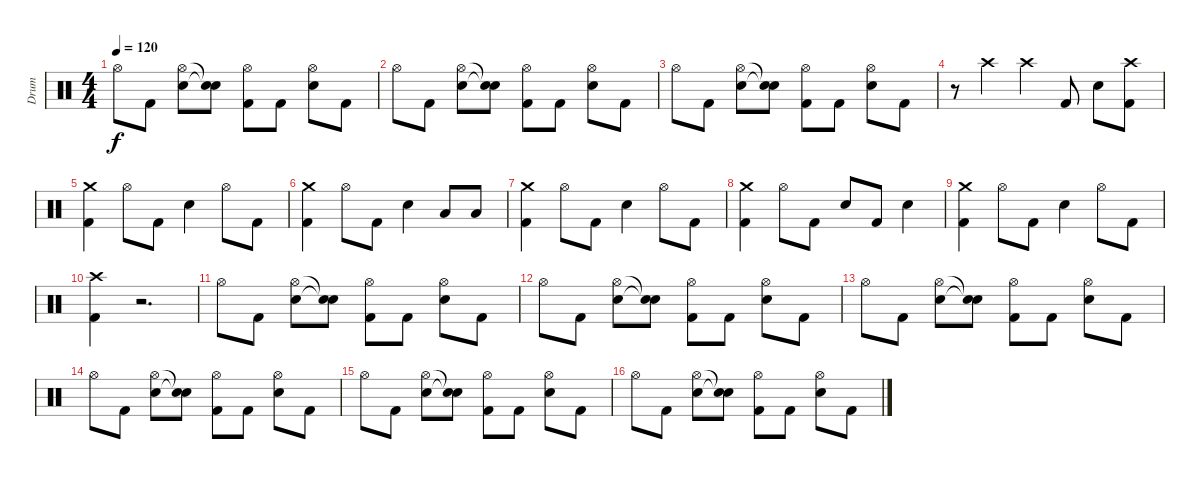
\track ("Drum" "Drum") {instrument percussion}
\staff {score}
\articulation defaults
\ts (4 4)
\tempo 120
\clef neutral
\ks c "Hi-Hat (open)".8{dy f} "Kick (hit) 2".8
("Hi-Hat (open)" "Electric Snare (hit)").8 ("Snare (hit)"{t} "Snare (hit)"{t}).8 ("Hi-Hat (open)" "Kick (hit) 2").8 "Kick (hit) 2".8 ("Hi-Hat (open)" "Electric Snare (hit)").8 "Kick (hit) 2".8 |
"Hi-Hat (open)".8 "Kick (hit) 2".8 ("Hi-Hat (open)" "Electric Snare (hit)").8 ("Snare (hit)"{t} "Snare (hit)"{t}).8 ("Hi-Hat (open)" "Kick (hit) 2").8 "Kick (hit) 2".8 ("Hi-Hat (open)" "Electric Snare (hit)").8 "Kick (hit) 2".8 |
"Hi-Hat (open)".8 "Kick (hit) 2".8 ("Hi-Hat (open)" "Electric Snare (hit)").8 ("Snare (hit)"{t} "Snare (hit)"{t}).8 ("Hi-Hat (open)" "Kick (hit) 2").8 "Kick (hit) 2".8 ("Hi-Hat (open)" "Electric Snare (hit)").8 "Kick (hit) 2".8 |
r.8 "Crash high (hit)".4 "Crash high (hit)".4 "Kick (hit) 2".8 "Electric Snare (hit)".8 ("Crash high (hit)" "Kick (hit) 2").8 |
("Crash medium (hit)" "Kick (hit) 2").4 "Hi-Hat (open)".8 "Kick (hit) 2".8 "Electric Snare (hit)".4 "Hi-Hat (open)".8 "Kick (hit) 2".8 |
("Crash medium (hit)" "Kick (hit) 2").4 "Hi-Hat (open)".8 "Kick (hit) 2".8 "Electric Snare (hit)".4 "Low Tom (hit)".8 "Low Floor Tom (hit)".8 |
("Crash medium (hit)" "Kick (hit) 2").4 "Hi-Hat (open)".8 "Kick (hit) 2".8 "Electric Snare (hit)".4 "Hi-Hat (open)".8 "Kick (hit) 2".8 |
("Crash medium (hit)" "Kick (hit) 2").4 "Hi-Hat (open)".8 "Kick (hit) 2".8 "Electric Snare (hit)".8 "Kick (hit) 2".8 "Electric Snare (hit)".4 |
("Crash medium (hit)" "Kick (hit) 2").4 "Hi-Hat (open)".8 "Kick (hit) 2".8 "Electric Snare (hit)".4 "Hi-Hat (open)".8 "Kick (hit) 2".8 |
("Crash high (hit)" "Kick (hit) 2").4 r.2{d} |
"Hi-Hat (open)".8 "Kick (hit) 2".8 ("Hi-Hat (open)" "Electric Snare (hit)").8 ("Snare (hit)"{t} "Snare (hit)"{t}).8 ("Hi-Hat (open)" "Kick (hit) 2").8 "Kick (hit) 2".8 ("Hi-Hat (open)" "Electric Snare (hit)").8 "Kick (hit) 2".8 |
"Hi-Hat (open)".8 "Kick (hit) 2".8 ("Hi-Hat (open)" "Electric Snare (hit)").8 ("Snare (hit)"{t} "Snare (hit)"{t}).8 ("Hi-Hat (open)" "Kick (hit) 2").8 "Kick (hit) 2".8 ("Hi-Hat (open)" "Electric Snare (hit)").8 "Kick (hit) 2".8 |
"Hi-Hat (open)".8 "Kick (hit) 2".8 ("Hi-Hat (open)" "Electric Snare (hit)").8 ("Snare (hit)"{t} "Snare (hit)"{t}).8 ("Hi-Hat (open)" "Kick (hit) 2").8 "Kick (hit) 2".8 ("Hi-Hat (open)" "Electric Snare (hit)").8 "Kick (hit) 2".8 |
"Hi-Hat (open)".8 "Kick (hit) 2".8 ("Hi-Hat (open)" "Electric Snare (hit)").8 ("Snare (hit)"{t} "Snare (hit)"{t}).8 ("Hi-Hat (open)" "Kick (hit) 2").8 "Kick (hit) 2".8 ("Hi-Hat (open)" "Electric Snare (hit)").8 "Kick (hit) 2".8 |
"Hi-Hat (open)".8 "Kick (hit) 2".8 ("Hi-Hat (open)" "Electric Snare (hit)").8 ("Snare (hit)"{t} "Snare (hit)"{t}).8 ("Hi-Hat (open)" "Kick (hit) 2").8 "Kick (hit) 2".8 ("Hi-Hat (open)" "Electric Snare (hit)").8 "Kick (hit) 2".8 |
"Hi-Hat (open)".8 "Kick (hit) 2".8 ("Hi-Hat (open)" "Electric Snare (hit)").8 ("Snare (hit)"{t} "Snare (hit)"{t}).8 ("Hi-Hat (open)" "Kick (hit) 2").8 "Kick (hit) 2".8 ("Hi-Hat (open)" "Electric Snare (hit)").8 "Kick (hit) 2".8
